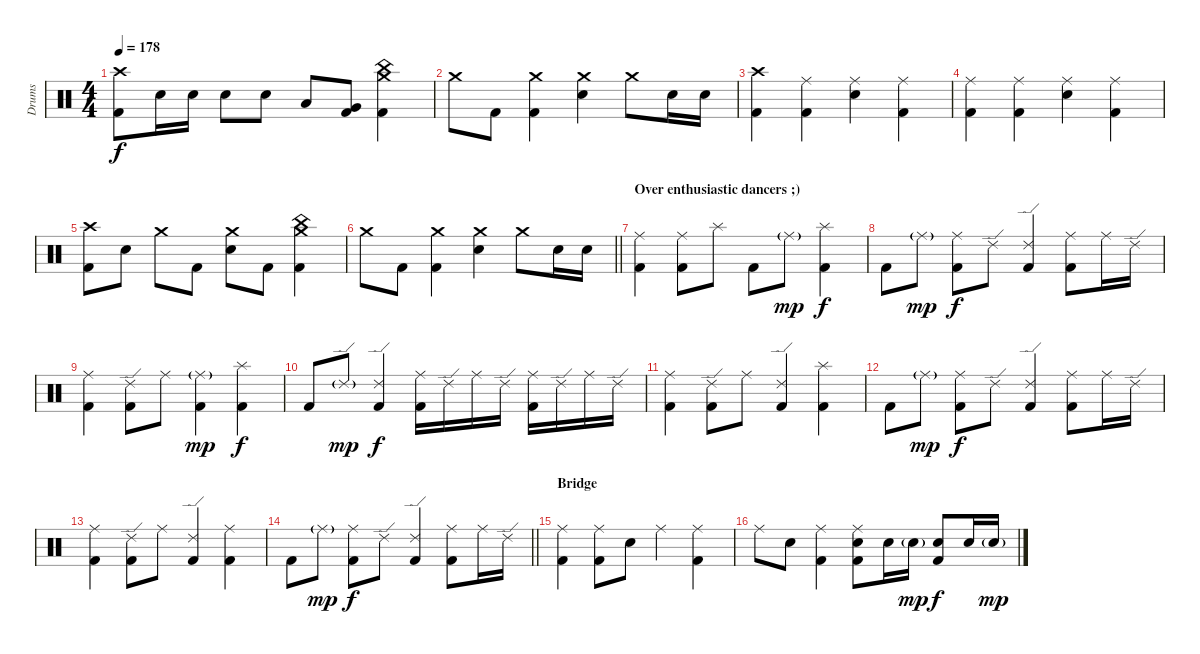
\track ("Drums" "Drums") {instrument percussion}
\staff {score}
\articulation defaults
\ts (4 4)
\tempo 178
\clef neutral
\ks c
("Crash high (hit)" "Kick (hit) 2").8{dy f} "Electric Snare (hit)".16 "Electric Snare (hit)".16 "Electric Snare (hit)".8 "Electric Snare (hit)".8 "Low Tom (hit)".8 ("Very Low Tom (hit)" "Kick (hit) 2").8 ("China (hit)" "Crash medium (hit)" "Kick (hit) 2").4 |
"Crash medium (hit)".8 "Kick (hit) 2".8 ("Crash medium (hit)" "Kick (hit) 2").4 ("Crash medium (hit)" "Electric Snare (hit)").4 "Crash medium (hit)".8 "Electric Snare (hit)".16 "Electric Snare (hit)".16 |
("Crash high (hit)" "Kick (hit) 2").4 ("Ride (middle)" "Kick (hit) 2").4 ("Ride (middle)" "Electric Snare (hit)").4 ("Ride (middle)" "Kick (hit) 2").4 |
("Ride (middle)" "Kick (hit) 2").4 ("Ride (middle)" "Kick (hit) 2").4 ("Ride (middle)" "Electric Snare (hit)").4 ("Ride (middle)" "Kick (hit) 2").4 |
("Crash high (hit)" "Kick (hit) 2").8 "Electric Snare (hit)".8 "Crash medium (hit)".8 "Kick (hit) 2".8 ("Crash medium (hit)" "Electric Snare (hit)").8 "Kick (hit) 2".8 ("China (hit)" "Crash medium (hit)" "Kick (hit) 2").4 |
\barLineRight lightlight "Crash medium (hit)".8 "Kick (hit) 2".8
("Crash medium (hit)" "Kick (hit) 2").4 ("Crash medium (hit)" "Electric Snare (hit)").4 "Crash medium (hit)".8 "Electric Snare (hit)".16 "Electric Snare (hit)".16 |
\section ("" "Over enthusiastic dancers ;)")
("Ride (middle)" "Kick (hit) 2").4 ("Ride (middle)" "Kick (hit) 2").8 "Splash (hit)".8 "Kick (hit) 2".8 "Ride (middle)"{g}.8{dy mp} ("Splash (hit)" "Kick (hit) 2").4{dy f} |
"Kick (hit) 2".8 "Ride (middle)"{g}.8{dy mp} ("Ride (middle)" "Kick (hit) 2").8{dy f} "Ride (edge) 2".8 ("Ride (edge) 2" "Kick (hit) 2").4 ("Ride (middle)" "Kick (hit) 2").8 "Ride (middle)".16 "Ride (edge) 2".16 |
("Ride (middle)" "Kick (hit) 2").4 ("Ride (edge) 2" "Kick (hit) 2").8 "Ride (middle)".8 ("Ride (middle)"{g} "Kick (hit) 2").4{dy mp} ("Splash (hit)" "Kick (hit) 2").4{dy f} |
"Kick (hit) 2".8 "Ride (edge) 2"{g}.8{dy mp} ("Ride (edge) 2" "Kick (hit) 2").4{dy f} ("Ride (middle)" "Kick (hit) 2").16 "Ride (edge) 2".16 "Ride (middle)".16 "Ride (edge) 2".16 ("Ride (middle)" "Kick (hit) 2").16 "Ride (edge) 2".16 "Ride (middle)".16 "Ride (edge) 2".16 |
("Ride (middle)" "Kick (hit) 2").4 ("Ride (edge) 2" "Kick (hit) 2").8 "Ride (middle)".8 ("Ride (edge) 2" "Kick (hit) 2").4 ("Splash (hit)" "Kick (hit) 2").4 |
"Kick (hit) 2".8 "Ride (middle)"{g}.8{dy mp} ("Ride (middle)" "Kick (hit) 2").8{dy f} "Ride (edge) 2".8 ("Ride (edge) 2" "Kick (hit) 2").4 ("Ride (middle)" "Kick (hit) 2").8 "Ride (middle)".16 "Ride (edge) 2".16 |
("Ride (middle)" "Kick (hit) 2").4 ("Ride (edge) 2" "Kick (hit) 2").8 "Ride (middle)".8 ("Ride (edge) 2" "Kick (hit) 2").4 ("Ride (middle)" "Kick (hit) 2").4 |
\barLineRight lightlight "Kick (hit) 2".8 "Ride (middle)"{g}.8{dy mp}
("Ride (middle)" "Kick (hit) 2").8{dy f} "Ride (edge) 2".8 ("Ride (edge) 2" "Kick (hit) 2").4 ("Ride (middle)" "Kick (hit) 2").8 "Ride (middle)".16 "Ride (edge) 2".16 |
\section ("" "Bridge")
("Ride (middle)" "Kick (hit) 2").4 ("Ride (middle)" "Kick (hit) 2").8 "Electric Snare (hit)".8 "Ride (middle)".4 ("Ride (middle)" "Kick (hit) 2").4 |
"Ride (middle)".8 "Electric Snare (hit)".8 ("Ride (middle)" "Kick (hit) 2").4 ("Ride (middle)" "Electric Snare (hit)" "Kick (hit) 2").8 "Electric Snare (hit)".16 "Electric Snare (hit)"{g}.16{dy mp} ("Electric Snare (hit)" "Kick (hit) 2").8{dy f} "Electric Snare (hit)".16 "Electric Snare (hit)"{g}.16{dy mp}
